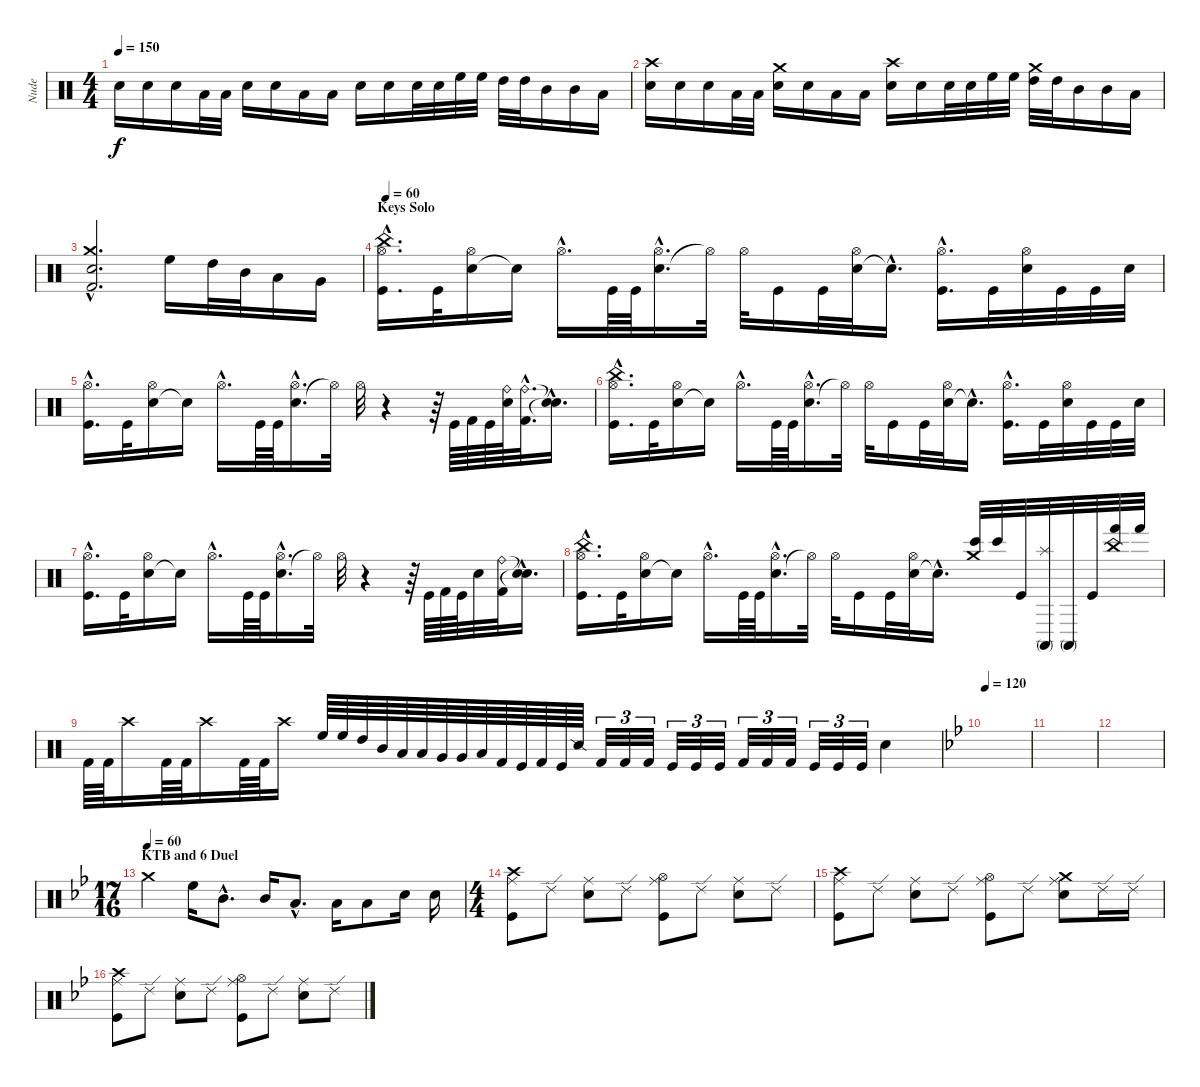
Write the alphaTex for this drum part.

\track ("Nude" "Nude") {instrument percussion}
\staff {score}
\articulation defaults
\ts (4 4)
\tempo 150
\clef neutral
\ks c "Electric Snare (hit)".16{dy f} "Electric Snare (hit)".16 "Electric Snare (hit)".16 "Low Tom (hit)".32 "Low Tom (hit)".32 "Electric Snare (hit)".16 "Electric Snare (hit)".16 "Low Tom (hit)".16 "Low Tom (hit)".16 "Electric Snare (hit)".16 "Electric Snare (hit)".16 "Electric Snare (hit)".32 "Electric Snare (hit)".32 "High Floor Tom (hit)".32 "High Floor Tom (hit)".32 "High Tom (hit)".32 "High Tom (hit)".32 "Mid Tom (hit)".16 "Mid Tom (hit)".16 "Low Tom (hit)".16
|
("Electric Snare (hit)" "Crash high (hit)").16 "Electric Snare (hit)".16 "Electric Snare (hit)".16 "Low Tom (hit)".32 "Low Tom (hit)".32 ("Electric Snare (hit)" "Crash medium (hit)").16 "Electric Snare (hit)".16 "Low Tom (hit)".16 "Low Tom (hit)".16 ("Electric Snare (hit)" "Crash high (hit)").16 "Electric Snare (hit)".16 "Electric Snare (hit)".32 "Electric Snare (hit)".32 "High Floor Tom (hit)".32 "High Floor Tom (hit)".32 ("High Tom (hit)" "Crash medium (hit)").32 "High Tom (hit)".32 "Mid Tom (hit)".16 "Mid Tom (hit)".16 "Low Tom (hit)".16 |
("Electric Snare (hit)"{hac} "Kick (hit) 2"{hac} "Crash medium (hit)"{hac}).2{d} "High Floor Tom (hit)".16 "High Tom (hit)".32 "Mid Tom (hit)".32 "Low Tom (hit)".16 "Very Low Tom (hit)".16 |
\section ("" "Keys Solo ")
\tempo 60
("Kick (hit)"{hac} "China (hit)"{hac} "Hi-Hat (open)"{hac}).16{d} "Kick (hit)".32 ("Snare (hit) 2" "Hi-Hat (open)").16 "Snare (hit)"{t}.16 "Hi-Hat (open)"{hac}.16{d} "Kick (hit)".64 "Kick (hit)".64 ("Snare (hit) 2"{hac} "Hi-Hat (open)"{hac}).16{d} "Hi-Hat (open)"{t}.32 "Hi-Hat (open)".32 "Kick (hit)".16 "Kick (hit)".32 ("Snare (hit) 2" "Hi-Hat (open)").32 "Snare (hit)"{hac t}.16{d} ("Kick (hit)"{hac} "Hi-Hat (open)"{hac}).16{d} "Kick (hit)".32 ("Snare (hit) 2" "Hi-Hat (open)").32 "Kick (hit)".32 "Kick (hit)".32 "Snare (hit) 2".32 |
("Kick (hit)"{hac} "Hi-Hat (open)"{hac}).16{d} "Kick (hit)".32 ("Snare (hit) 2" "Hi-Hat (open)").16 "Snare (hit)"{t}.16 "Hi-Hat (open)"{hac}.16{d} "Kick (hit)".64 "Kick (hit)".64 ("Snare (hit) 2"{hac} "Hi-Hat (open)"{hac}).16{d} "Hi-Hat (open)"{t}.32 "Hi-Hat (open)".32 r.4 r.64 "Kick (hit)".64 "Kick (hit) 2".64 "Kick (hit)".64 ("Snare (hit) 2" "Ride (bell)").64 ("Kick (hit) 2"{hac} "Ride (bell)"{hac}).32{d} ("Snare (hit)"{hac t} "Snare (hit)"{hac t}).16{d} |
("Kick (hit)"{hac} "China (hit)"{hac} "Hi-Hat (open)"{hac}).16{d} "Kick (hit)".32 ("Snare (hit) 2" "Hi-Hat (open)").16 "Snare (hit)"{t}.16 "Hi-Hat (open)"{hac}.16{d} "Kick (hit)".64 "Kick (hit)".64 ("Snare (hit) 2"{hac} "Hi-Hat (open)"{hac}).16{d} "Hi-Hat (open)"{t}.32 "Hi-Hat (open)".32 "Kick (hit)".16 "Kick (hit)".32 ("Snare (hit) 2" "Hi-Hat (open)").32 "Snare (hit)"{hac t}.16{d} ("Kick (hit)"{hac} "Hi-Hat (open)"{hac}).16{d} "Kick (hit)".32 ("Snare (hit) 2" "Hi-Hat (open)").32 "Kick (hit)".32 "Kick (hit)".32 "Snare (hit) 2".32 |
("Kick (hit)"{hac} "Hi-Hat (open)"{hac}).16{d} "Kick (hit)".32 ("Snare (hit) 2" "Hi-Hat (open)").16 "Snare (hit)"{t}.16 "Hi-Hat (open)"{hac}.16{d} "Kick (hit)".64 "Kick (hit)".64 ("Snare (hit) 2"{hac} "Hi-Hat (open)"{hac}).16{d} "Hi-Hat (open)"{t}.32 "Hi-Hat (open)".32 r.4 r.64 "Kick (hit)".64 "Kick (hit) 2".64 "Kick (hit)".64 "Snare (hit) 2".32 ("Kick (hit) 2" "Ride (bell)").32 ("Snare (hit)"{hac t} "Snare (hit)"{hac t}).16{d} |
("Kick (hit)"{hac} "China (hit)"{hac} "Hi-Hat (open)"{hac}).16{d} "Kick (hit)".32 ("Snare (hit) 2" "Hi-Hat (open)").16 "Snare (hit)"{t}.16 "Hi-Hat (open)"{hac}.16{d} "Kick (hit)".64 "Kick (hit)".64 ("Snare (hit) 2"{hac} "Hi-Hat (open)"{hac}).16{d} "Hi-Hat (open)"{t}.32 "Hi-Hat (open)".32 "Kick (hit)".16 "Kick (hit)".32 ("Snare (hit) 2" "Hi-Hat (open)").32 "Snare (hit)"{hac t}.16{d} ("Bongo High (hit)" "Crash medium (hit)").32 "Bongo High (hit)".32 "Kick (hit)".32 ("Conga high (mute)" "Splash (hit)").32 "Conga high (mute)".32 "Kick (hit)".32 ("Hand (hit)" "China (hit)").32 "Hand (hit)".32 |
"Kick (hit) 2".64 "Kick (hit) 2".64 "Crash high (hit)".16 "Kick (hit) 2".64 "Kick (hit) 2".64 "Crash high (hit)".16 "Kick (hit) 2".64 "Kick (hit) 2".64 "Crash high (hit)".16 "High Floor Tom (hit)".64 "High Floor Tom (hit)".64 "High Tom (hit)".64 "Mid Tom (hit)".64 "Low Tom (hit)".64 "Low Tom (hit)".64 "Very Low Tom (hit)".64 "Very Low Tom (hit)".64 "Low Floor Tom (hit)".64 "Kick (hit) 2".64 "Kick (hit)".64 "Kick (hit) 2".64 "Kick (hit)".64 "Snare (side stick) 2".64 "Kick (hit) 2".32{tu (3 2)} "Kick (hit) 2".32{tu (3 2)} "Kick (hit) 2".32{tu (3 2)} "Kick (hit)".32{tu (3 2)} "Kick (hit)".32{tu (3 2)} "Kick (hit)".32{tu (3 2)} "Kick (hit) 2".32{tu (3 2)} "Kick (hit) 2".32{tu (3 2)} "Kick (hit) 2".32{tu (3 2)} "Kick (hit)".32{tu (3 2)} "Kick (hit)".32{tu (3 2)} "Kick (hit)".32{tu (3 2)} "Electric Snare (hit)".4 |
\tempo 120
\ks gminor
|
|
|
\ts (17 16)
\section ("" "KTB and 6 Duel")
\tempo (60)
"Crash medium (hit)".4 "High Floor Tom (hit)".16 "Mid Tom (hit)"{hac}.8{d} "Mid Tom (hit)".16 "Low Tom (hit)"{hac}.8{d} "Low Tom (hit)".16 "Low Floor Tom (hit)".8 "Snare (hit) 2".16 "Electric Snare (hit)".16 |
\ts (4 4)
("Ride (middle)" "Crash high (hit)" "Kick (hit)").8 "Ride (edge) 2".8 ("Ride (middle)" "Electric Snare (hit)").8 "Ride (edge) 2".8 ("Ride (middle)" "Hi-Hat (open)" "Kick (hit)").8 "Ride (edge) 2".8 ("Ride (middle)" "Electric Snare (hit)").8 "Ride (edge) 2".8 |
("Ride (middle)" "Crash high (hit)" "Kick (hit)").8 "Ride (edge) 2".8 ("Ride (middle)" "Electric Snare (hit)").8 "Ride (edge) 2".8 ("Ride (middle)" "Hi-Hat (open)" "Kick (hit)").8 "Ride (edge) 2".8 ("Ride (middle)" "Electric Snare (hit)" "Crash medium (hit)").8 "Ride (edge) 2".16 "Ride (edge) 2".16 |
("Ride (middle)" "Crash high (hit)" "Kick (hit)").8 "Ride (edge) 2".8 ("Ride (middle)" "Electric Snare (hit)").8 "Ride (edge) 2".8 ("Ride (middle)" "Hi-Hat (open)" "Kick (hit)").8 "Ride (edge) 2".8 ("Ride (middle)" "Electric Snare (hit)").8 "Ride (edge) 2".8
